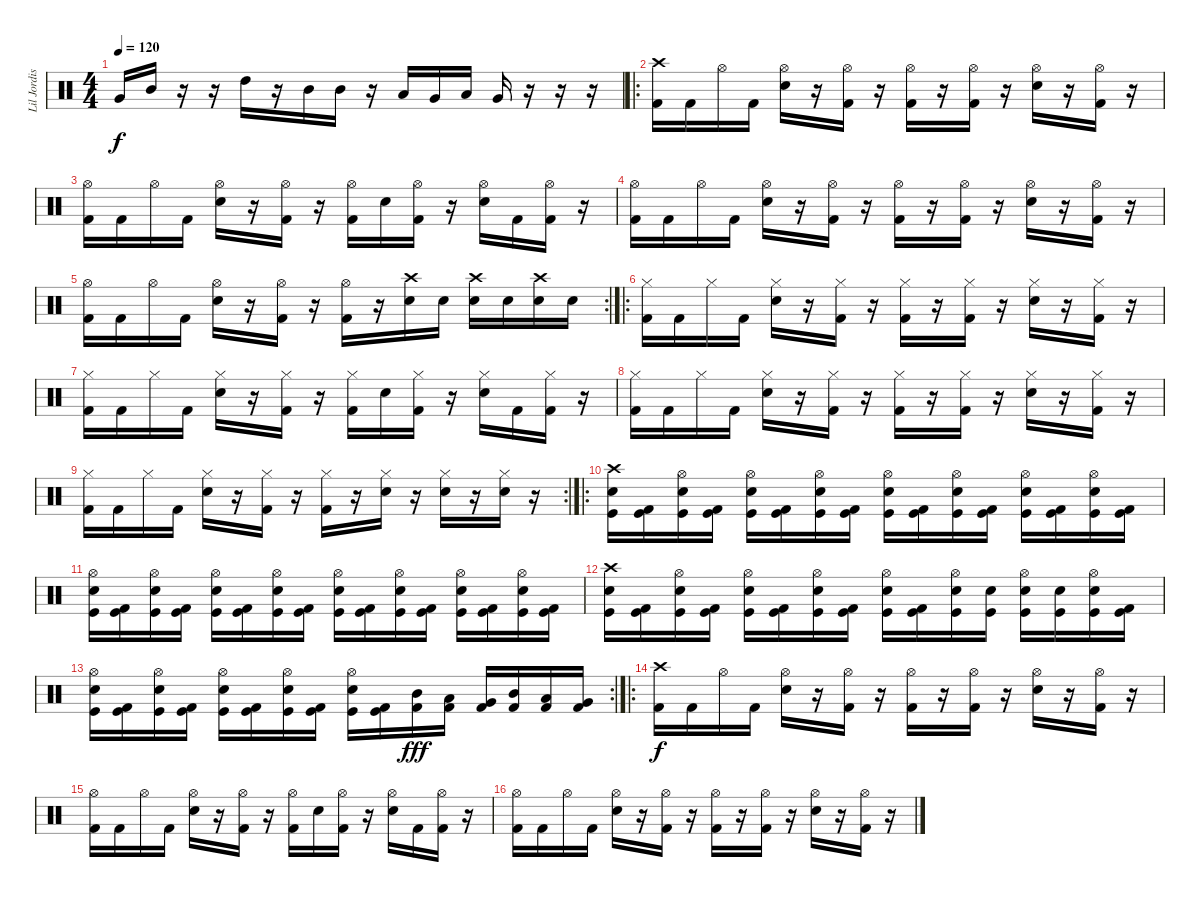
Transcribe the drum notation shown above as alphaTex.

\track ("Lil Jordison" "Lil Jordis") {instrument percussion}
\staff {score}
\articulation defaults
\ts (4 4)
\tempo 120
\clef neutral
\ks c "Very Low Tom (hit)".16{dy f} "Mid Tom (hit)".16
r.16 r.16 "High Tom (hit)".16 r.16 "Mid Tom (hit)".16 "Mid Tom (hit)".16 r.16 "Low Tom (hit)".16 "Very Low Tom (hit)".16 "Low Tom (hit)".16 "Very Low Tom (hit)".16 r.16 r.16 r.16 |
\ro
("Crash high (hit)" "Kick (hit) 2").16 "Kick (hit) 2".16 "Hi-Hat (open)".16 "Kick (hit) 2".16 ("Hi-Hat (open)" "Electric Snare (hit)").16 r.16 ("Hi-Hat (open)" "Kick (hit) 2").16 r.16 ("Hi-Hat (open)" "Kick (hit) 2").16 r.16 ("Hi-Hat (open)" "Kick (hit) 2").16 r.16 ("Hi-Hat (open)" "Electric Snare (hit)").16 r.16 ("Hi-Hat (open)" "Kick (hit) 2").16 r.16 |
("Hi-Hat (open)" "Kick (hit) 2").16 "Kick (hit) 2".16 "Hi-Hat (open)".16 "Kick (hit) 2".16 ("Hi-Hat (open)" "Electric Snare (hit)").16 r.16 ("Hi-Hat (open)" "Kick (hit) 2").16 r.16 ("Hi-Hat (open)" "Kick (hit) 2").16 "Electric Snare (hit)".16 ("Hi-Hat (open)" "Kick (hit) 2").16 r.16 ("Hi-Hat (open)" "Electric Snare (hit)").16 "Kick (hit) 2".16 ("Hi-Hat (open)" "Kick (hit) 2").16 r.16 |
("Hi-Hat (open)" "Kick (hit) 2").16 "Kick (hit) 2".16 "Hi-Hat (open)".16 "Kick (hit) 2".16 ("Hi-Hat (open)" "Electric Snare (hit)").16 r.16 ("Hi-Hat (open)" "Kick (hit) 2").16 r.16 ("Hi-Hat (open)" "Kick (hit) 2").16 r.16 ("Hi-Hat (open)" "Kick (hit) 2").16 r.16 ("Hi-Hat (open)" "Electric Snare (hit)").16 r.16 ("Hi-Hat (open)" "Kick (hit) 2").16 r.16 |
\rc 2
("Hi-Hat (open)" "Kick (hit) 2").16 "Kick (hit) 2".16 "Hi-Hat (open)".16 "Kick (hit) 2".16 ("Hi-Hat (open)" "Electric Snare (hit)").16 r.16 ("Hi-Hat (open)" "Kick (hit) 2").16 r.16 ("Hi-Hat (open)" "Kick (hit) 2").16 r.16 ("Crash high (hit)" "Electric Snare (hit)").16 "Electric Snare (hit)".16 ("Crash high (hit)" "Electric Snare (hit)").16 "Electric Snare (hit)".16 ("Crash high (hit)" "Electric Snare (hit)").16 "Electric Snare (hit)".16 |
\ro
("Hi-Hat (closed)" "Kick (hit) 2").16 "Kick (hit) 2".16 "Hi-Hat (closed)".16 "Kick (hit) 2".16 ("Hi-Hat (closed)" "Electric Snare (hit)").16 r.16 ("Hi-Hat (closed)" "Kick (hit) 2").16 r.16 ("Hi-Hat (closed)" "Kick (hit) 2").16 r.16 ("Hi-Hat (closed)" "Kick (hit) 2").16 r.16 ("Hi-Hat (closed)" "Electric Snare (hit)").16 r.16 ("Hi-Hat (closed)" "Kick (hit) 2").16 r.16 |
("Hi-Hat (closed)" "Kick (hit) 2").16 "Kick (hit) 2".16 "Hi-Hat (closed)".16 "Kick (hit) 2".16 ("Hi-Hat (closed)" "Electric Snare (hit)").16 r.16 ("Hi-Hat (closed)" "Kick (hit) 2").16 r.16 ("Hi-Hat (closed)" "Kick (hit) 2").16 "Electric Snare (hit)".16 ("Hi-Hat (closed)" "Kick (hit) 2").16 r.16 ("Hi-Hat (closed)" "Electric Snare (hit)").16 "Kick (hit) 2".16 ("Hi-Hat (closed)" "Kick (hit) 2").16 r.16 |
("Hi-Hat (closed)" "Kick (hit) 2").16 "Kick (hit) 2".16 "Hi-Hat (closed)".16 "Kick (hit) 2".16 ("Hi-Hat (closed)" "Electric Snare (hit)").16 r.16 ("Hi-Hat (closed)" "Kick (hit) 2").16 r.16 ("Hi-Hat (closed)" "Kick (hit) 2").16 r.16 ("Hi-Hat (closed)" "Kick (hit) 2").16 r.16 ("Hi-Hat (closed)" "Electric Snare (hit)").16 r.16 ("Hi-Hat (closed)" "Kick (hit) 2").16 r.16 |
\rc 2
("Hi-Hat (closed)" "Kick (hit) 2").16 "Kick (hit) 2".16 "Hi-Hat (closed)".16 "Kick (hit) 2".16 ("Hi-Hat (closed)" "Electric Snare (hit)").16 r.16 ("Hi-Hat (closed)" "Kick (hit) 2").16 r.16 ("Hi-Hat (closed)" "Kick (hit) 2").16 r.16 ("Hi-Hat (closed)" "Electric Snare (hit)").16 r.16 ("Hi-Hat (closed)" "Electric Snare (hit)").16 r.16 ("Hi-Hat (closed)" "Electric Snare (hit)").16 r.16 |
\ro
("Crash high (hit)" "Kick (hit)" "Electric Snare (hit)").16 ("Kick (hit)" "Kick (hit) 2").16 ("Hi-Hat (open)" "Kick (hit)" "Electric Snare (hit)").16 ("Kick (hit)" "Kick (hit) 2").16 ("Hi-Hat (open)" "Kick (hit)" "Electric Snare (hit)").16 ("Kick (hit)" "Kick (hit) 2").16 ("Hi-Hat (open)" "Kick (hit)" "Electric Snare (hit)").16 ("Kick (hit)" "Kick (hit) 2").16 ("Hi-Hat (open)" "Kick (hit)" "Electric Snare (hit)").16 ("Kick (hit)" "Kick (hit) 2").16 ("Hi-Hat (open)" "Kick (hit)" "Electric Snare (hit)").16 ("Kick (hit)" "Kick (hit) 2").16 ("Hi-Hat (open)" "Kick (hit)" "Electric Snare (hit)").16 ("Kick (hit)" "Kick (hit) 2").16 ("Hi-Hat (open)" "Kick (hit)" "Electric Snare (hit)").16 ("Kick (hit)" "Kick (hit) 2").16 |
("Hi-Hat (open)" "Kick (hit)" "Electric Snare (hit)").16 ("Kick (hit)" "Kick (hit) 2").16 ("Hi-Hat (open)" "Kick (hit)" "Electric Snare (hit)").16 ("Kick (hit)" "Kick (hit) 2").16 ("Hi-Hat (open)" "Kick (hit)" "Electric Snare (hit)").16 ("Kick (hit)" "Kick (hit) 2").16 ("Hi-Hat (open)" "Kick (hit)" "Electric Snare (hit)").16 ("Kick (hit)" "Kick (hit) 2").16 ("Hi-Hat (open)" "Kick (hit)" "Electric Snare (hit)").16 ("Kick (hit)" "Kick (hit) 2").16 ("Hi-Hat (open)" "Kick (hit)" "Electric Snare (hit)").16 ("Kick (hit)" "Kick (hit) 2").16 ("Hi-Hat (open)" "Kick (hit)" "Electric Snare (hit)").16 ("Kick (hit)" "Kick (hit) 2").16 ("Hi-Hat (open)" "Kick (hit)" "Electric Snare (hit)").16 ("Kick (hit)" "Kick (hit) 2").16 |
("Crash high (hit)" "Kick (hit)" "Electric Snare (hit)").16 ("Kick (hit)" "Kick (hit) 2").16 ("Hi-Hat (open)" "Kick (hit)" "Electric Snare (hit)").16 ("Kick (hit)" "Kick (hit) 2").16 ("Hi-Hat (open)" "Kick (hit)" "Electric Snare (hit)").16 ("Kick (hit)" "Kick (hit) 2").16 ("Hi-Hat (open)" "Kick (hit)" "Electric Snare (hit)").16 ("Kick (hit)" "Kick (hit) 2").16 ("Hi-Hat (open)" "Kick (hit)" "Electric Snare (hit)").16 ("Kick (hit)" "Kick (hit) 2").16 ("Hi-Hat (open)" "Kick (hit)" "Electric Snare (hit)").16 ("Kick (hit)" "Electric Snare (hit)").16 ("Hi-Hat (open)" "Kick (hit)" "Electric Snare (hit)").16 ("Kick (hit)" "Electric Snare (hit)").16 ("Hi-Hat (open)" "Kick (hit)" "Electric Snare (hit)").16 ("Kick (hit)" "Kick (hit) 2").16 |
\rc 2
("Hi-Hat (open)" "Kick (hit)" "Electric Snare (hit)").16 ("Kick (hit)" "Kick (hit) 2").16 ("Hi-Hat (open)" "Kick (hit)" "Electric Snare (hit)").16 ("Kick (hit)" "Kick (hit) 2").16 ("Hi-Hat (open)" "Kick (hit)" "Electric Snare (hit)").16 ("Kick (hit)" "Kick (hit) 2").16 ("Hi-Hat (open)" "Kick (hit)" "Electric Snare (hit)").16 ("Kick (hit)" "Kick (hit) 2").16 ("Hi-Hat (open)" "Kick (hit)" "Electric Snare (hit)").16 ("Kick (hit)" "Kick (hit) 2").16 ("Mid Tom (hit)" "Kick (hit) 2").16{dy fff} ("Low Tom (hit)" "Kick (hit) 2").16 ("Very Low Tom (hit)" "Kick (hit) 2").16 ("Mid Tom (hit)" "Kick (hit) 2").16 ("Low Tom (hit)" "Kick (hit) 2").16 ("Very Low Tom (hit)" "Kick (hit) 2").16 |
\ro
("Crash high (hit)" "Kick (hit) 2").16{dy f} "Kick (hit) 2".16 "Hi-Hat (open)".16 "Kick (hit) 2".16 ("Hi-Hat (open)" "Electric Snare (hit)").16 r.16 ("Hi-Hat (open)" "Kick (hit) 2").16 r.16 ("Hi-Hat (open)" "Kick (hit) 2").16 r.16 ("Hi-Hat (open)" "Kick (hit) 2").16 r.16 ("Hi-Hat (open)" "Electric Snare (hit)").16 r.16 ("Hi-Hat (open)" "Kick (hit) 2").16 r.16 |
("Hi-Hat (open)" "Kick (hit) 2").16 "Kick (hit) 2".16 "Hi-Hat (open)".16 "Kick (hit) 2".16 ("Hi-Hat (open)" "Electric Snare (hit)").16 r.16 ("Hi-Hat (open)" "Kick (hit) 2").16 r.16 ("Hi-Hat (open)" "Kick (hit) 2").16 "Electric Snare (hit)".16 ("Hi-Hat (open)" "Kick (hit) 2").16 r.16 ("Hi-Hat (open)" "Electric Snare (hit)").16 "Kick (hit) 2".16 ("Hi-Hat (open)" "Kick (hit) 2").16 r.16 |
("Hi-Hat (open)" "Kick (hit) 2").16 "Kick (hit) 2".16 "Hi-Hat (open)".16 "Kick (hit) 2".16 ("Hi-Hat (open)" "Electric Snare (hit)").16 r.16 ("Hi-Hat (open)" "Kick (hit) 2").16 r.16 ("Hi-Hat (open)" "Kick (hit) 2").16 r.16 ("Hi-Hat (open)" "Kick (hit) 2").16 r.16 ("Hi-Hat (open)" "Electric Snare (hit)").16 r.16 ("Hi-Hat (open)" "Kick (hit) 2").16 r.16
